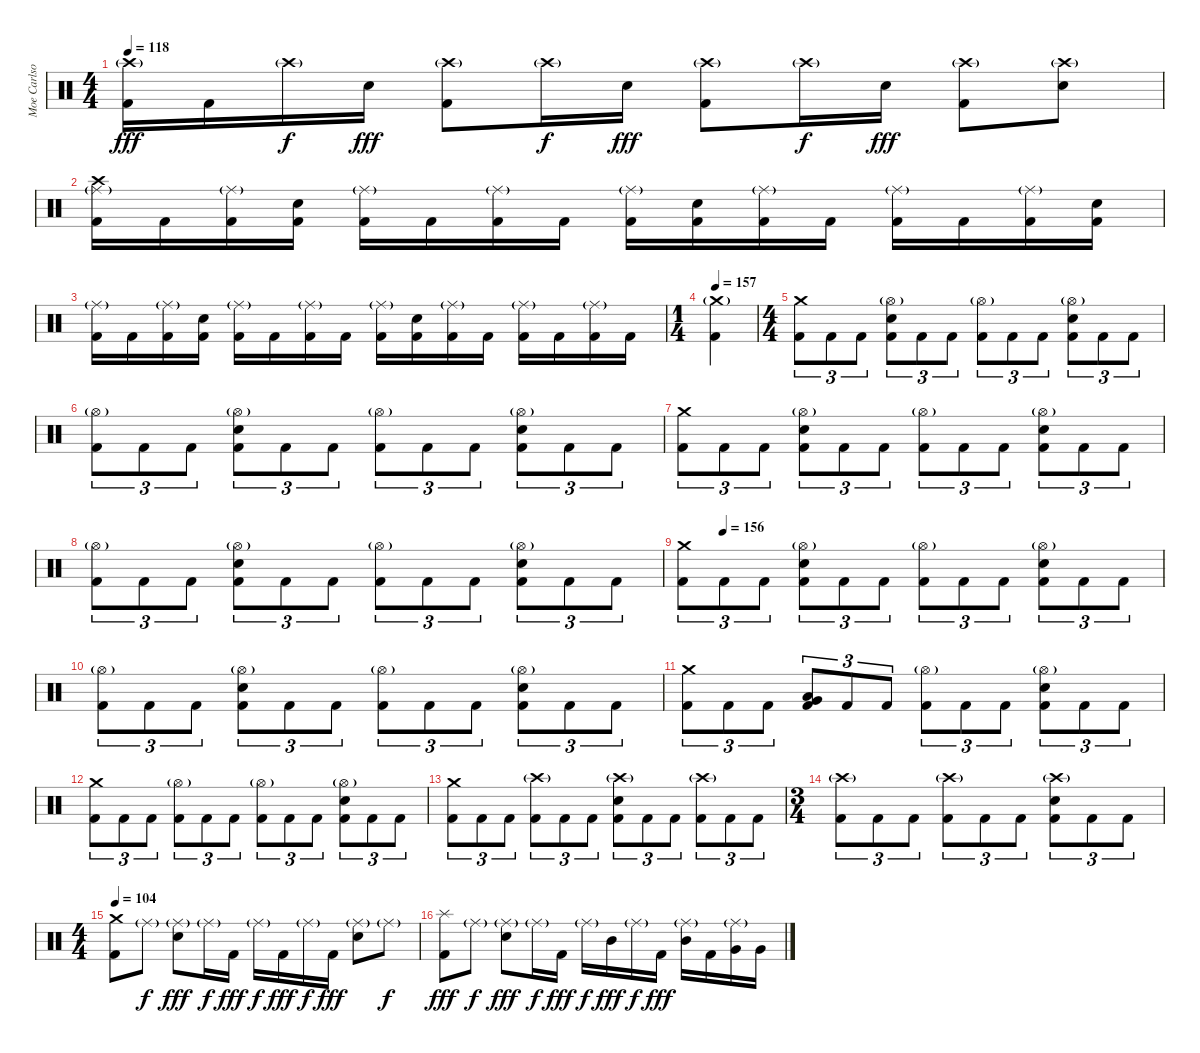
\track ("Moe Carlson - Percussion" "Moe Carlso") {instrument percussion}
\staff {score}
\articulation defaults
\ts (4 4)
\tempo 118
\clef neutral
\ks c
("Crash high (hit)"{g} "Kick (hit) 2").16{dy fff} "Kick (hit) 2".16 "Crash high (hit)"{g}.16{dy f} "Electric Snare (hit)".16{dy fff} ("Crash high (hit)"{g} "Kick (hit) 2").8 "Crash high (hit)"{g}.16{dy f} "Electric Snare (hit)".16{dy fff} ("Crash high (hit)"{g} "Kick (hit) 2").8 "Crash high (hit)"{g}.16{dy f} "Electric Snare (hit)".16{dy fff} ("Crash high (hit)"{g} "Kick (hit) 2").8 ("Crash high (hit)"{g} "Electric Snare (hit)").8 |
("Crash high (hit)" "Ride (middle)"{g} "Kick (hit) 2").16 "Kick (hit) 2".16 ("Ride (middle)"{g} "Kick (hit) 2").16 ("Electric Snare (hit)" "Kick (hit) 2").16 ("Ride (middle)"{g} "Kick (hit) 2").16 "Kick (hit) 2".16 ("Ride (middle)"{g} "Kick (hit) 2").16 "Kick (hit) 2".16 ("Ride (middle)"{g} "Kick (hit) 2").16 ("Electric Snare (hit)" "Kick (hit) 2").16 ("Ride (middle)"{g} "Kick (hit) 2").16 "Kick (hit) 2".16 ("Ride (middle)"{g} "Kick (hit) 2").16 "Kick (hit) 2".16 ("Ride (middle)"{g} "Kick (hit) 2").16 ("Electric Snare (hit)" "Kick (hit) 2").16 |
("Ride (middle)"{g} "Kick (hit) 2").16 "Kick (hit) 2".16 ("Ride (middle)"{g} "Kick (hit) 2").16 ("Electric Snare (hit)" "Kick (hit) 2").16 ("Ride (middle)"{g} "Kick (hit) 2").16 "Kick (hit) 2".16 ("Ride (middle)"{g} "Kick (hit) 2").16 "Kick (hit) 2".16 ("Ride (middle)"{g} "Kick (hit) 2").16 ("Electric Snare (hit)" "Kick (hit) 2").16 ("Ride (middle)"{g} "Kick (hit) 2").16 "Kick (hit) 2".16 ("Ride (middle)"{g} "Kick (hit) 2").16 "Kick (hit) 2".16 ("Ride (middle)"{g} "Kick (hit) 2").16 "Kick (hit) 2".16 |
\ts (1 4)
\tempo 157
("Crash medium (hit)"{g} "Kick (hit) 2").4 |
\ts (4 4)
("Crash medium (hit)" "Kick (hit) 2").8{tu (3 2)} "Kick (hit) 2".8{tu (3 2)} "Kick (hit) 2".8{tu (3 2)} ("Hi-Hat (open)"{g} "Electric Snare (hit)" "Kick (hit) 2").8{tu (3 2)} "Kick (hit) 2".8{tu (3 2)} "Kick (hit) 2".8{tu (3 2)} ("Hi-Hat (open)"{g} "Kick (hit) 2").8{tu (3 2)} "Kick (hit) 2".8{tu (3 2)} "Kick (hit) 2".8{tu (3 2)} ("Hi-Hat (open)"{g} "Electric Snare (hit)" "Kick (hit) 2").8{tu (3 2)} "Kick (hit) 2".8{tu (3 2)} "Kick (hit) 2".8{tu (3 2)} |
("Hi-Hat (open)"{g} "Kick (hit) 2").8{tu (3 2)} "Kick (hit) 2".8{tu (3 2)} "Kick (hit) 2".8{tu (3 2)} ("Hi-Hat (open)"{g} "Electric Snare (hit)" "Kick (hit) 2").8{tu (3 2)} "Kick (hit) 2".8{tu (3 2)} "Kick (hit) 2".8{tu (3 2)} ("Hi-Hat (open)"{g} "Kick (hit) 2").8{tu (3 2)} "Kick (hit) 2".8{tu (3 2)} "Kick (hit) 2".8{tu (3 2)} ("Hi-Hat (open)"{g} "Electric Snare (hit)" "Kick (hit) 2").8{tu (3 2)} "Kick (hit) 2".8{tu (3 2)} "Kick (hit) 2".8{tu (3 2)} |
("Crash medium (hit)" "Kick (hit) 2").8{tu (3 2)} "Kick (hit) 2".8{tu (3 2)} "Kick (hit) 2".8{tu (3 2)} ("Hi-Hat (open)"{g} "Electric Snare (hit)" "Kick (hit) 2").8{tu (3 2)} "Kick (hit) 2".8{tu (3 2)} "Kick (hit) 2".8{tu (3 2)} ("Hi-Hat (open)"{g} "Kick (hit) 2").8{tu (3 2)} "Kick (hit) 2".8{tu (3 2)} "Kick (hit) 2".8{tu (3 2)} ("Hi-Hat (open)"{g} "Electric Snare (hit)" "Kick (hit) 2").8{tu (3 2)} "Kick (hit) 2".8{tu (3 2)} "Kick (hit) 2".8{tu (3 2)} |
("Hi-Hat (open)"{g} "Kick (hit) 2").8{tu (3 2)} "Kick (hit) 2".8{tu (3 2)} "Kick (hit) 2".8{tu (3 2)} ("Hi-Hat (open)"{g} "Electric Snare (hit)" "Kick (hit) 2").8{tu (3 2)} "Kick (hit) 2".8{tu (3 2)} "Kick (hit) 2".8{tu (3 2)} ("Hi-Hat (open)"{g} "Kick (hit) 2").8{tu (3 2)} "Kick (hit) 2".8{tu (3 2)} "Kick (hit) 2".8{tu (3 2)} ("Hi-Hat (open)"{g} "Electric Snare (hit)" "Kick (hit) 2").8{tu (3 2)} "Kick (hit) 2".8{tu (3 2)} "Kick (hit) 2".8{tu (3 2)} |
\tempo (156 0.08333333333333333)
("Crash medium (hit)" "Kick (hit) 2").8{tu (3 2)} "Kick (hit) 2".8{tu (3 2)} "Kick (hit) 2".8{tu (3 2)} ("Hi-Hat (open)"{g} "Electric Snare (hit)" "Kick (hit) 2").8{tu (3 2)} "Kick (hit) 2".8{tu (3 2)} "Kick (hit) 2".8{tu (3 2)} ("Hi-Hat (open)"{g} "Kick (hit) 2").8{tu (3 2)} "Kick (hit) 2".8{tu (3 2)} "Kick (hit) 2".8{tu (3 2)} ("Hi-Hat (open)"{g} "Electric Snare (hit)" "Kick (hit) 2").8{tu (3 2)} "Kick (hit) 2".8{tu (3 2)} "Kick (hit) 2".8{tu (3 2)} |
("Hi-Hat (open)"{g} "Kick (hit) 2").8{tu (3 2)} "Kick (hit) 2".8{tu (3 2)} "Kick (hit) 2".8{tu (3 2)} ("Hi-Hat (open)"{g} "Electric Snare (hit)" "Kick (hit) 2").8{tu (3 2)} "Kick (hit) 2".8{tu (3 2)} "Kick (hit) 2".8{tu (3 2)} ("Hi-Hat (open)"{g} "Kick (hit) 2").8{tu (3 2)} "Kick (hit) 2".8{tu (3 2)} "Kick (hit) 2".8{tu (3 2)} ("Hi-Hat (open)"{g} "Electric Snare (hit)" "Kick (hit) 2").8{tu (3 2)} "Kick (hit) 2".8{tu (3 2)} "Kick (hit) 2".8{tu (3 2)} |
("Crash medium (hit)" "Kick (hit) 2").8{tu (3 2)} "Kick (hit) 2".8{tu (3 2)} "Kick (hit) 2".8{tu (3 2)} ("Low Tom (hit)" "Very Low Tom (hit)" "Kick (hit) 2").8{tu (3 2)} "Kick (hit) 2".8{tu (3 2)} "Kick (hit) 2".8{tu (3 2)} ("Hi-Hat (open)"{g} "Kick (hit) 2").8{tu (3 2)} "Kick (hit) 2".8{tu (3 2)} "Kick (hit) 2".8{tu (3 2)} ("Hi-Hat (open)"{g} "Electric Snare (hit)" "Kick (hit) 2").8{tu (3 2)} "Kick (hit) 2".8{tu (3 2)} "Kick (hit) 2".8{tu (3 2)} |
("Crash medium (hit)" "Kick (hit) 2").8{tu (3 2)} "Kick (hit) 2".8{tu (3 2)} "Kick (hit) 2".8{tu (3 2)} ("Hi-Hat (open)"{g} "Kick (hit) 2").8{tu (3 2)} "Kick (hit) 2".8{tu (3 2)} "Kick (hit) 2".8{tu (3 2)} ("Hi-Hat (open)"{g} "Kick (hit) 2").8{tu (3 2)} "Kick (hit) 2".8{tu (3 2)} "Kick (hit) 2".8{tu (3 2)} ("Hi-Hat (open)"{g} "Electric Snare (hit)" "Kick (hit) 2").8{tu (3 2)} "Kick (hit) 2".8{tu (3 2)} "Kick (hit) 2".8{tu (3 2)} |
("Crash medium (hit)" "Kick (hit) 2").8{tu (3 2)} "Kick (hit) 2".8{tu (3 2)} "Kick (hit) 2".8{tu (3 2)} ("Crash high (hit)"{g} "Kick (hit) 2").8{tu (3 2)} "Kick (hit) 2".8{tu (3 2)} "Kick (hit) 2".8{tu (3 2)} ("Crash high (hit)"{g} "Electric Snare (hit)" "Kick (hit) 2").8{tu (3 2)} "Kick (hit) 2".8{tu (3 2)} "Kick (hit) 2".8{tu (3 2)} ("Crash high (hit)"{g} "Kick (hit) 2").8{tu (3 2)} "Kick (hit) 2".8{tu (3 2)} "Kick (hit) 2".8{tu (3 2)} |
\ts (3 4)
("Crash high (hit)"{g} "Kick (hit) 2").8{tu (3 2)} "Kick (hit) 2".8{tu (3 2)} "Kick (hit) 2".8{tu (3 2)} ("Crash high (hit)"{g} "Kick (hit) 2").8{tu (3 2)} "Kick (hit) 2".8{tu (3 2)} "Kick (hit) 2".8{tu (3 2)} ("Crash high (hit)"{g} "Electric Snare (hit)" "Kick (hit) 2").8{tu (3 2)} "Kick (hit) 2".8{tu (3 2)} "Kick (hit) 2".8{tu (3 2)} |
\ts (4 4)
\tempo 104
("Crash medium (hit)" "Kick (hit) 2").8 "Ride (middle)"{g}.8{dy f} ("Ride (middle)"{g} "Electric Snare (hit)").8{dy fff} "Ride (middle)"{g}.16{dy f} "Kick (hit) 2".16{dy fff} "Ride (middle)"{g}.16{dy f} "Kick (hit) 2".16{dy fff} "Ride (middle)"{g}.16{dy f} "Kick (hit) 2".16{dy fff} ("Ride (middle)"{g} "Electric Snare (hit)").8 "Ride (middle)"{g}.8{dy f} |
("Splash (hit)" "Kick (hit) 2").8{dy fff} "Ride (middle)"{g}.8{dy f} ("Ride (middle)"{g} "Electric Snare (hit)").8{dy fff} "Ride (middle)"{g}.16{dy f} "Kick (hit) 2".16{dy fff} "Ride (middle)"{g}.16{dy f} "Mid Tom (hit)".16{dy fff} "Ride (middle)"{g}.16{dy f} "Kick (hit) 2".16{dy fff} ("Ride (middle)"{g} "Mid Tom (hit)").16 "Kick (hit) 2".16 ("Ride (middle)"{g} "Very Low Tom (hit)").16 "Very Low Tom (hit)".16
